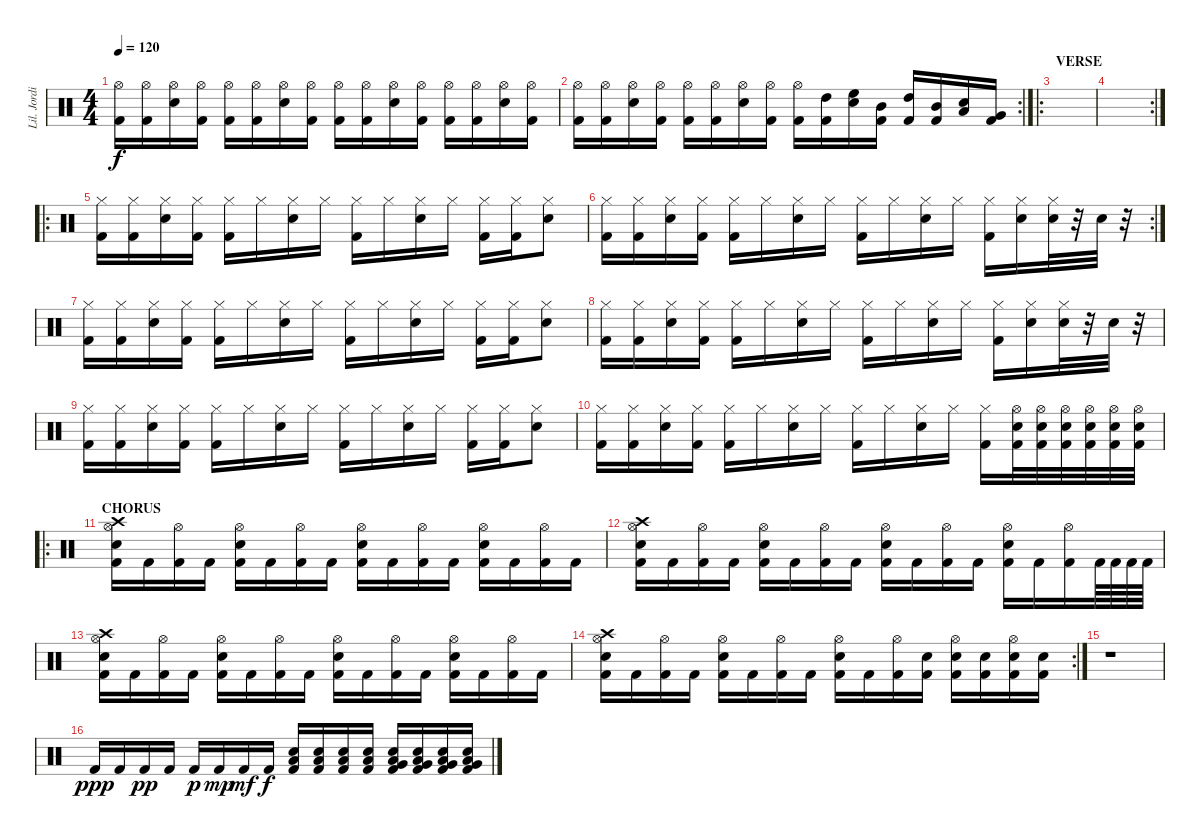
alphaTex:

\track ("Lil. Jordison" "Lil. Jordi") {instrument percussion}
\staff {score}
\articulation defaults
\ts (4 4)
\tempo 120
\clef neutral
\ks c
("Hi-Hat (open)" "Kick (hit) 2").16{dy f} ("Hi-Hat (open)" "Kick (hit) 2").16 ("Hi-Hat (open)" "Electric Snare (hit)").16 ("Hi-Hat (open)" "Kick (hit) 2").16 ("Hi-Hat (open)" "Kick (hit) 2").16 ("Hi-Hat (open)" "Kick (hit) 2").16 ("Hi-Hat (open)" "Electric Snare (hit)").16 ("Hi-Hat (open)" "Kick (hit) 2").16 ("Hi-Hat (open)" "Kick (hit) 2").16 ("Hi-Hat (open)" "Kick (hit) 2").16 ("Hi-Hat (open)" "Electric Snare (hit)").16 ("Hi-Hat (open)" "Kick (hit) 2").16 ("Hi-Hat (open)" "Kick (hit) 2").16 ("Hi-Hat (open)" "Kick (hit) 2").16 ("Hi-Hat (open)" "Electric Snare (hit)").16 ("Hi-Hat (open)" "Kick (hit) 2").16 |
\rc 2
("Hi-Hat (open)" "Kick (hit) 2").16 ("Hi-Hat (open)" "Kick (hit) 2").16 ("Hi-Hat (open)" "Electric Snare (hit)").16 ("Hi-Hat (open)" "Kick (hit) 2").16 ("Hi-Hat (open)" "Kick (hit) 2").16 ("Hi-Hat (open)" "Kick (hit) 2").16 ("Hi-Hat (open)" "Electric Snare (hit)").16 ("Hi-Hat (open)" "Kick (hit) 2").16 ("Hi-Hat (open)" "Kick (hit) 2").16 ("High Tom (hit)" "Kick (hit) 2").16 ("High Floor Tom (hit)" "Electric Snare (hit)").16 ("Mid Tom (hit)" "Kick (hit) 2").16 ("High Tom (hit)" "Kick (hit) 2").16 ("Mid Tom (hit)" "Kick (hit) 2").16 ("Low Tom (hit)" "Electric Snare (hit)").16 ("Very Low Tom (hit)" "Kick (hit) 2").16 |
\ro
\section ("" "VERSE")
|
\rc 2
|
\ro
("Hi-Hat (closed)" "Kick (hit) 2").16 ("Hi-Hat (closed)" "Kick (hit) 2").16 ("Hi-Hat (closed)" "Electric Snare (hit)").16 ("Hi-Hat (closed)" "Kick (hit) 2").16 ("Hi-Hat (closed)" "Kick (hit) 2").16 "Hi-Hat (closed)".16 ("Hi-Hat (closed)" "Electric Snare (hit)").16 "Hi-Hat (closed)".16 ("Hi-Hat (closed)" "Kick (hit) 2").16 "Hi-Hat (closed)".16 ("Hi-Hat (closed)" "Electric Snare (hit)").16 "Hi-Hat (closed)".16 ("Hi-Hat (closed)" "Kick (hit) 2").16 ("Hi-Hat (closed)" "Kick (hit) 2").16 ("Hi-Hat (closed)" "Electric Snare (hit)").8 |
\rc 2
("Hi-Hat (closed)" "Kick (hit) 2").16 ("Hi-Hat (closed)" "Kick (hit) 2").16 ("Hi-Hat (closed)" "Electric Snare (hit)").16 ("Hi-Hat (closed)" "Kick (hit) 2").16 ("Hi-Hat (closed)" "Kick (hit) 2").16 "Hi-Hat (closed)".16 ("Hi-Hat (closed)" "Electric Snare (hit)").16 "Hi-Hat (closed)".16 ("Hi-Hat (closed)" "Kick (hit) 2").16 "Hi-Hat (closed)".16 ("Hi-Hat (closed)" "Electric Snare (hit)").16 "Hi-Hat (closed)".16 ("Hi-Hat (closed)" "Kick (hit) 2").16 ("Hi-Hat (closed)" "Electric Snare (hit)").16 ("Hi-Hat (closed)" "Electric Snare (hit)").32 r.32 "Electric Snare (hit)".32 r.32 |
("Hi-Hat (closed)" "Kick (hit) 2").16 ("Hi-Hat (closed)" "Kick (hit) 2").16 ("Hi-Hat (closed)" "Electric Snare (hit)").16 ("Hi-Hat (closed)" "Kick (hit) 2").16 ("Hi-Hat (closed)" "Kick (hit) 2").16 "Hi-Hat (closed)".16 ("Hi-Hat (closed)" "Electric Snare (hit)").16 "Hi-Hat (closed)".16 ("Hi-Hat (closed)" "Kick (hit) 2").16 "Hi-Hat (closed)".16 ("Hi-Hat (closed)" "Electric Snare (hit)").16 "Hi-Hat (closed)".16 ("Hi-Hat (closed)" "Kick (hit) 2").16 ("Hi-Hat (closed)" "Kick (hit) 2").16 ("Hi-Hat (closed)" "Electric Snare (hit)").8 |
("Hi-Hat (closed)" "Kick (hit) 2").16 ("Hi-Hat (closed)" "Kick (hit) 2").16 ("Hi-Hat (closed)" "Electric Snare (hit)").16 ("Hi-Hat (closed)" "Kick (hit) 2").16 ("Hi-Hat (closed)" "Kick (hit) 2").16 "Hi-Hat (closed)".16 ("Hi-Hat (closed)" "Electric Snare (hit)").16 "Hi-Hat (closed)".16 ("Hi-Hat (closed)" "Kick (hit) 2").16 "Hi-Hat (closed)".16 ("Hi-Hat (closed)" "Electric Snare (hit)").16 "Hi-Hat (closed)".16 ("Hi-Hat (closed)" "Kick (hit) 2").16 ("Hi-Hat (closed)" "Electric Snare (hit)").16 ("Hi-Hat (closed)" "Electric Snare (hit)").32 r.32 "Electric Snare (hit)".32 r.32 |
("Hi-Hat (closed)" "Kick (hit) 2").16 ("Hi-Hat (closed)" "Kick (hit) 2").16 ("Hi-Hat (closed)" "Electric Snare (hit)").16 ("Hi-Hat (closed)" "Kick (hit) 2").16 ("Hi-Hat (closed)" "Kick (hit) 2").16 "Hi-Hat (closed)".16 ("Hi-Hat (closed)" "Electric Snare (hit)").16 "Hi-Hat (closed)".16 ("Hi-Hat (closed)" "Kick (hit) 2").16 "Hi-Hat (closed)".16 ("Hi-Hat (closed)" "Electric Snare (hit)").16 "Hi-Hat (closed)".16 ("Hi-Hat (closed)" "Kick (hit) 2").16 ("Hi-Hat (closed)" "Kick (hit) 2").16 ("Hi-Hat (closed)" "Electric Snare (hit)").8 |
("Hi-Hat (closed)" "Kick (hit) 2").16 ("Hi-Hat (closed)" "Kick (hit) 2").16 ("Hi-Hat (closed)" "Electric Snare (hit)").16 ("Hi-Hat (closed)" "Kick (hit) 2").16 ("Hi-Hat (closed)" "Kick (hit) 2").16 "Hi-Hat (closed)".16 ("Hi-Hat (closed)" "Electric Snare (hit)").16 "Hi-Hat (closed)".16 ("Hi-Hat (closed)" "Kick (hit) 2").16 "Hi-Hat (closed)".16 ("Hi-Hat (closed)" "Electric Snare (hit)").16 "Hi-Hat (closed)".16 ("Hi-Hat (closed)" "Kick (hit) 2").16 ("Hi-Hat (open)" "Kick (hit) 2" "Electric Snare (hit)").32 ("Hi-Hat (open)" "Kick (hit) 2" "Electric Snare (hit)").32 ("Hi-Hat (open)" "Kick (hit) 2" "Electric Snare (hit)").32 ("Hi-Hat (open)" "Kick (hit) 2" "Electric Snare (hit)").32 ("Hi-Hat (open)" "Kick (hit) 2" "Electric Snare (hit)").32 ("Hi-Hat (open)" "Kick (hit) 2" "Electric Snare (hit)").32 |
\ro
\section ("" "CHORUS")
("Hi-Hat (open)" "Crash high (hit)" "Electric Snare (hit)" "Kick (hit) 2").16 "Kick (hit) 2".16 ("Hi-Hat (open)" "Kick (hit) 2").16 "Kick (hit) 2".16 ("Hi-Hat (open)" "Electric Snare (hit)" "Kick (hit) 2").16 "Kick (hit) 2".16 ("Hi-Hat (open)" "Kick (hit) 2").16 "Kick (hit) 2".16 ("Hi-Hat (open)" "Electric Snare (hit)" "Kick (hit) 2").16 "Kick (hit) 2".16 ("Hi-Hat (open)" "Kick (hit) 2").16 "Kick (hit) 2".16 ("Hi-Hat (open)" "Electric Snare (hit)" "Kick (hit) 2").16 "Kick (hit) 2".16 ("Hi-Hat (open)" "Kick (hit) 2").16 "Kick (hit) 2".16 |
("Hi-Hat (open)" "Crash high (hit)" "Electric Snare (hit)" "Kick (hit) 2").16 "Kick (hit) 2".16 ("Hi-Hat (open)" "Kick (hit) 2").16 "Kick (hit) 2".16 ("Hi-Hat (open)" "Electric Snare (hit)" "Kick (hit) 2").16 "Kick (hit) 2".16 ("Hi-Hat (open)" "Kick (hit) 2").16 "Kick (hit) 2".16 ("Hi-Hat (open)" "Electric Snare (hit)" "Kick (hit) 2").16 "Kick (hit) 2".16 ("Hi-Hat (open)" "Kick (hit) 2").16 "Kick (hit) 2".16 ("Hi-Hat (open)" "Electric Snare (hit)" "Kick (hit) 2").16 "Kick (hit) 2".16 ("Hi-Hat (open)" "Kick (hit) 2").16 "Kick (hit) 2".64 "Kick (hit) 2".64 "Kick (hit) 2".64 "Kick (hit) 2".64 |
("Hi-Hat (open)" "Crash high (hit)" "Electric Snare (hit)" "Kick (hit) 2").16 "Kick (hit) 2".16 ("Hi-Hat (open)" "Kick (hit) 2").16 "Kick (hit) 2".16 ("Hi-Hat (open)" "Electric Snare (hit)" "Kick (hit) 2").16 "Kick (hit) 2".16 ("Hi-Hat (open)" "Kick (hit) 2").16 "Kick (hit) 2".16 ("Hi-Hat (open)" "Electric Snare (hit)" "Kick (hit) 2").16 "Kick (hit) 2".16 ("Hi-Hat (open)" "Kick (hit) 2").16 "Kick (hit) 2".16 ("Hi-Hat (open)" "Electric Snare (hit)" "Kick (hit) 2").16 "Kick (hit) 2".16 ("Hi-Hat (open)" "Kick (hit) 2").16 "Kick (hit) 2".16 |
\rc 2
("Hi-Hat (open)" "Crash high (hit)" "Electric Snare (hit)" "Kick (hit) 2").16 "Kick (hit) 2".16 ("Hi-Hat (open)" "Kick (hit) 2").16 "Kick (hit) 2".16 ("Hi-Hat (open)" "Electric Snare (hit)" "Kick (hit) 2").16 "Kick (hit) 2".16 ("Hi-Hat (open)" "Kick (hit) 2").16 "Kick (hit) 2".16 ("Hi-Hat (open)" "Electric Snare (hit)" "Kick (hit) 2").16 "Kick (hit) 2".16 ("Hi-Hat (open)" "Kick (hit) 2").16 ("Electric Snare (hit)" "Kick (hit) 2").16 ("Hi-Hat (open)" "Electric Snare (hit)" "Kick (hit) 2").16 ("Electric Snare (hit)" "Kick (hit) 2").16 ("Hi-Hat (open)" "Electric Snare (hit)" "Kick (hit) 2").16 ("Electric Snare (hit)" "Kick (hit) 2").16 |
r.1 |
"Kick (hit) 2".16{dy ppp} "Kick (hit) 2".16 "Kick (hit) 2".16{dy pp} "Kick (hit) 2".16 "Kick (hit) 2".16{dy p} "Kick (hit) 2".16{dy mp} "Kick (hit) 2".16{dy mf} "Kick (hit) 2".16{dy f} ("Low Tom (hit)" "Electric Snare (hit)" "Kick (hit) 2").16 ("Low Tom (hit)" "Electric Snare (hit)" "Kick (hit) 2").16 ("Low Tom (hit)" "Electric Snare (hit)" "Kick (hit) 2").16 ("Low Tom (hit)" "Electric Snare (hit)" "Kick (hit) 2").16 ("Very Low Tom (hit)" "Low Tom (hit)" "Electric Snare (hit)" "Kick (hit) 2").16 ("Very Low Tom (hit)" "Low Tom (hit)" "Electric Snare (hit)" "Kick (hit) 2").16 ("Very Low Tom (hit)" "Low Tom (hit)" "Electric Snare (hit)" "Kick (hit) 2").16 ("Very Low Tom (hit)" "Low Tom (hit)" "Electric Snare (hit)" "Kick (hit) 2").16
